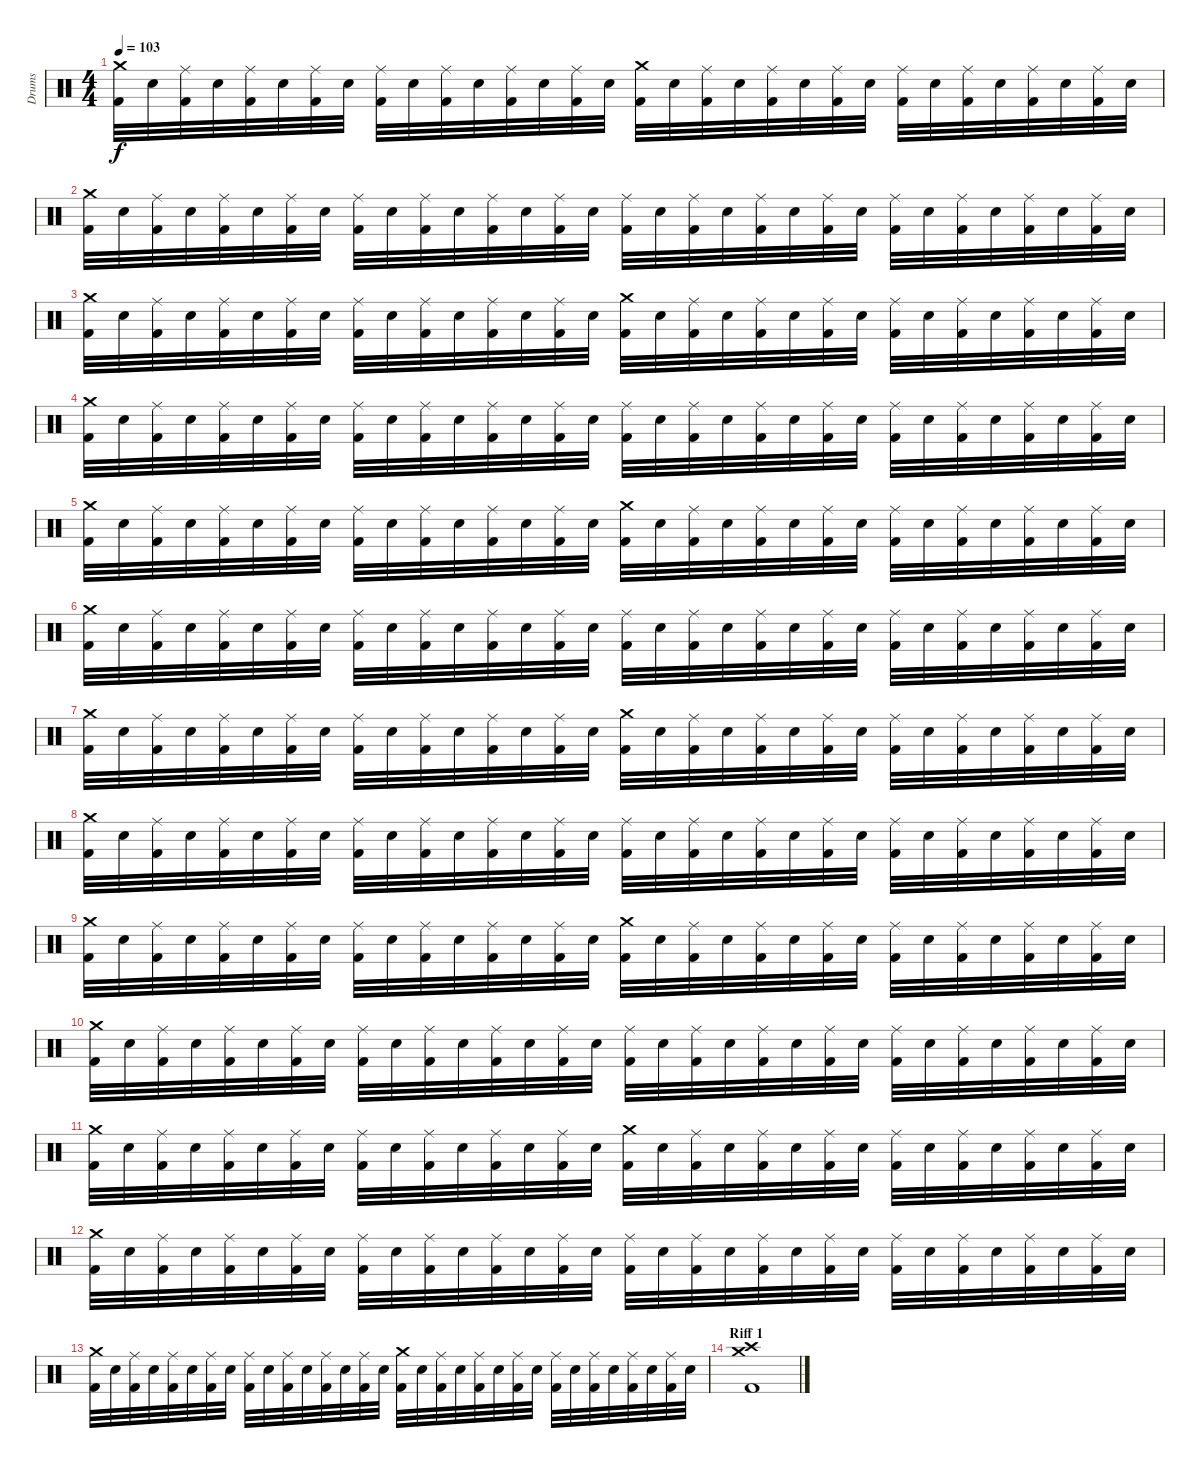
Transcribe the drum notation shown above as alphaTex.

\track ("Drums" "Drums") {instrument percussion}
\staff {score}
\articulation defaults
\ts (4 4)
\tempo 103
\clef neutral
\ks c
("Crash medium (hit)" "Kick (hit) 2").32{dy f} "Electric Snare (hit)".32 ("Ride (middle)" "Kick (hit) 2").32 "Electric Snare (hit)".32 ("Ride (middle)" "Kick (hit) 2").32 "Electric Snare (hit)".32 ("Ride (middle)" "Kick (hit) 2").32 "Electric Snare (hit)".32 ("Ride (middle)" "Kick (hit) 2").32 "Electric Snare (hit)".32 ("Ride (middle)" "Kick (hit) 2").32 "Electric Snare (hit)".32 ("Ride (middle)" "Kick (hit) 2").32 "Electric Snare (hit)".32 ("Ride (middle)" "Kick (hit) 2").32 "Electric Snare (hit)".32 ("Crash medium (hit)" "Kick (hit) 2").32 "Electric Snare (hit)".32 ("Ride (middle)" "Kick (hit) 2").32 "Electric Snare (hit)".32 ("Ride (middle)" "Kick (hit) 2").32 "Electric Snare (hit)".32 ("Ride (middle)" "Kick (hit) 2").32 "Electric Snare (hit)".32 ("Ride (middle)" "Kick (hit) 2").32 "Electric Snare (hit)".32 ("Ride (middle)" "Kick (hit) 2").32 "Electric Snare (hit)".32 ("Ride (middle)" "Kick (hit) 2").32 "Electric Snare (hit)".32 ("Ride (middle)" "Kick (hit) 2").32 "Electric Snare (hit)".32 |
("Crash medium (hit)" "Kick (hit) 2").32 "Electric Snare (hit)".32 ("Ride (middle)" "Kick (hit) 2").32 "Electric Snare (hit)".32 ("Ride (middle)" "Kick (hit) 2").32 "Electric Snare (hit)".32 ("Ride (middle)" "Kick (hit) 2").32 "Electric Snare (hit)".32 ("Ride (middle)" "Kick (hit) 2").32 "Electric Snare (hit)".32 ("Ride (middle)" "Kick (hit) 2").32 "Electric Snare (hit)".32 ("Ride (middle)" "Kick (hit) 2").32 "Electric Snare (hit)".32 ("Ride (middle)" "Kick (hit) 2").32 "Electric Snare (hit)".32 ("Ride (middle)" "Kick (hit) 2").32 "Electric Snare (hit)".32 ("Ride (middle)" "Kick (hit) 2").32 "Electric Snare (hit)".32 ("Ride (middle)" "Kick (hit) 2").32 "Electric Snare (hit)".32 ("Ride (middle)" "Kick (hit) 2").32 "Electric Snare (hit)".32 ("Ride (middle)" "Kick (hit) 2").32 "Electric Snare (hit)".32 ("Ride (middle)" "Kick (hit) 2").32 "Electric Snare (hit)".32 ("Ride (middle)" "Kick (hit) 2").32 "Electric Snare (hit)".32 ("Ride (middle)" "Kick (hit) 2").32 "Electric Snare (hit)".32 |
("Crash medium (hit)" "Kick (hit) 2").32 "Electric Snare (hit)".32 ("Ride (middle)" "Kick (hit) 2").32 "Electric Snare (hit)".32 ("Ride (middle)" "Kick (hit) 2").32 "Electric Snare (hit)".32 ("Ride (middle)" "Kick (hit) 2").32 "Electric Snare (hit)".32 ("Ride (middle)" "Kick (hit) 2").32 "Electric Snare (hit)".32 ("Ride (middle)" "Kick (hit) 2").32 "Electric Snare (hit)".32 ("Ride (middle)" "Kick (hit) 2").32 "Electric Snare (hit)".32 ("Ride (middle)" "Kick (hit) 2").32 "Electric Snare (hit)".32 ("Crash medium (hit)" "Kick (hit) 2").32 "Electric Snare (hit)".32 ("Ride (middle)" "Kick (hit) 2").32 "Electric Snare (hit)".32 ("Ride (middle)" "Kick (hit) 2").32 "Electric Snare (hit)".32 ("Ride (middle)" "Kick (hit) 2").32 "Electric Snare (hit)".32 ("Ride (middle)" "Kick (hit) 2").32 "Electric Snare (hit)".32 ("Ride (middle)" "Kick (hit) 2").32 "Electric Snare (hit)".32 ("Ride (middle)" "Kick (hit) 2").32 "Electric Snare (hit)".32 ("Ride (middle)" "Kick (hit) 2").32 "Electric Snare (hit)".32 |
("Crash medium (hit)" "Kick (hit) 2").32 "Electric Snare (hit)".32 ("Ride (middle)" "Kick (hit) 2").32 "Electric Snare (hit)".32 ("Ride (middle)" "Kick (hit) 2").32 "Electric Snare (hit)".32 ("Ride (middle)" "Kick (hit) 2").32 "Electric Snare (hit)".32 ("Ride (middle)" "Kick (hit) 2").32 "Electric Snare (hit)".32 ("Ride (middle)" "Kick (hit) 2").32 "Electric Snare (hit)".32 ("Ride (middle)" "Kick (hit) 2").32 "Electric Snare (hit)".32 ("Ride (middle)" "Kick (hit) 2").32 "Electric Snare (hit)".32 ("Ride (middle)" "Kick (hit) 2").32 "Electric Snare (hit)".32 ("Ride (middle)" "Kick (hit) 2").32 "Electric Snare (hit)".32 ("Ride (middle)" "Kick (hit) 2").32 "Electric Snare (hit)".32 ("Ride (middle)" "Kick (hit) 2").32 "Electric Snare (hit)".32 ("Ride (middle)" "Kick (hit) 2").32 "Electric Snare (hit)".32 ("Ride (middle)" "Kick (hit) 2").32 "Electric Snare (hit)".32 ("Ride (middle)" "Kick (hit) 2").32 "Electric Snare (hit)".32 ("Ride (middle)" "Kick (hit) 2").32 "Electric Snare (hit)".32 |
("Crash medium (hit)" "Kick (hit) 2").32 "Electric Snare (hit)".32 ("Ride (middle)" "Kick (hit) 2").32 "Electric Snare (hit)".32 ("Ride (middle)" "Kick (hit) 2").32 "Electric Snare (hit)".32 ("Ride (middle)" "Kick (hit) 2").32 "Electric Snare (hit)".32 ("Ride (middle)" "Kick (hit) 2").32 "Electric Snare (hit)".32 ("Ride (middle)" "Kick (hit) 2").32 "Electric Snare (hit)".32 ("Ride (middle)" "Kick (hit) 2").32 "Electric Snare (hit)".32 ("Ride (middle)" "Kick (hit) 2").32 "Electric Snare (hit)".32 ("Crash medium (hit)" "Kick (hit) 2").32 "Electric Snare (hit)".32 ("Ride (middle)" "Kick (hit) 2").32 "Electric Snare (hit)".32 ("Ride (middle)" "Kick (hit) 2").32 "Electric Snare (hit)".32 ("Ride (middle)" "Kick (hit) 2").32 "Electric Snare (hit)".32 ("Ride (middle)" "Kick (hit) 2").32 "Electric Snare (hit)".32 ("Ride (middle)" "Kick (hit) 2").32 "Electric Snare (hit)".32 ("Ride (middle)" "Kick (hit) 2").32 "Electric Snare (hit)".32 ("Ride (middle)" "Kick (hit) 2").32 "Electric Snare (hit)".32 |
("Crash medium (hit)" "Kick (hit) 2").32 "Electric Snare (hit)".32 ("Ride (middle)" "Kick (hit) 2").32 "Electric Snare (hit)".32 ("Ride (middle)" "Kick (hit) 2").32 "Electric Snare (hit)".32 ("Ride (middle)" "Kick (hit) 2").32 "Electric Snare (hit)".32 ("Ride (middle)" "Kick (hit) 2").32 "Electric Snare (hit)".32 ("Ride (middle)" "Kick (hit) 2").32 "Electric Snare (hit)".32 ("Ride (middle)" "Kick (hit) 2").32 "Electric Snare (hit)".32 ("Ride (middle)" "Kick (hit) 2").32 "Electric Snare (hit)".32 ("Ride (middle)" "Kick (hit) 2").32 "Electric Snare (hit)".32 ("Ride (middle)" "Kick (hit) 2").32 "Electric Snare (hit)".32 ("Ride (middle)" "Kick (hit) 2").32 "Electric Snare (hit)".32 ("Ride (middle)" "Kick (hit) 2").32 "Electric Snare (hit)".32 ("Ride (middle)" "Kick (hit) 2").32 "Electric Snare (hit)".32 ("Ride (middle)" "Kick (hit) 2").32 "Electric Snare (hit)".32 ("Ride (middle)" "Kick (hit) 2").32 "Electric Snare (hit)".32 ("Ride (middle)" "Kick (hit) 2").32 "Electric Snare (hit)".32 |
("Crash medium (hit)" "Kick (hit) 2").32 "Electric Snare (hit)".32 ("Ride (middle)" "Kick (hit) 2").32 "Electric Snare (hit)".32 ("Ride (middle)" "Kick (hit) 2").32 "Electric Snare (hit)".32 ("Ride (middle)" "Kick (hit) 2").32 "Electric Snare (hit)".32 ("Ride (middle)" "Kick (hit) 2").32 "Electric Snare (hit)".32 ("Ride (middle)" "Kick (hit) 2").32 "Electric Snare (hit)".32 ("Ride (middle)" "Kick (hit) 2").32 "Electric Snare (hit)".32 ("Ride (middle)" "Kick (hit) 2").32 "Electric Snare (hit)".32 ("Crash medium (hit)" "Kick (hit) 2").32 "Electric Snare (hit)".32 ("Ride (middle)" "Kick (hit) 2").32 "Electric Snare (hit)".32 ("Ride (middle)" "Kick (hit) 2").32 "Electric Snare (hit)".32 ("Ride (middle)" "Kick (hit) 2").32 "Electric Snare (hit)".32 ("Ride (middle)" "Kick (hit) 2").32 "Electric Snare (hit)".32 ("Ride (middle)" "Kick (hit) 2").32 "Electric Snare (hit)".32 ("Ride (middle)" "Kick (hit) 2").32 "Electric Snare (hit)".32 ("Ride (middle)" "Kick (hit) 2").32 "Electric Snare (hit)".32 |
("Crash medium (hit)" "Kick (hit) 2").32 "Electric Snare (hit)".32 ("Ride (middle)" "Kick (hit) 2").32 "Electric Snare (hit)".32 ("Ride (middle)" "Kick (hit) 2").32 "Electric Snare (hit)".32 ("Ride (middle)" "Kick (hit) 2").32 "Electric Snare (hit)".32 ("Ride (middle)" "Kick (hit) 2").32 "Electric Snare (hit)".32 ("Ride (middle)" "Kick (hit) 2").32 "Electric Snare (hit)".32 ("Ride (middle)" "Kick (hit) 2").32 "Electric Snare (hit)".32 ("Ride (middle)" "Kick (hit) 2").32 "Electric Snare (hit)".32 ("Ride (middle)" "Kick (hit) 2").32 "Electric Snare (hit)".32 ("Ride (middle)" "Kick (hit) 2").32 "Electric Snare (hit)".32 ("Ride (middle)" "Kick (hit) 2").32 "Electric Snare (hit)".32 ("Ride (middle)" "Kick (hit) 2").32 "Electric Snare (hit)".32 ("Ride (middle)" "Kick (hit) 2").32 "Electric Snare (hit)".32 ("Ride (middle)" "Kick (hit) 2").32 "Electric Snare (hit)".32 ("Ride (middle)" "Kick (hit) 2").32 "Electric Snare (hit)".32 ("Ride (middle)" "Kick (hit) 2").32 "Electric Snare (hit)".32 |
("Crash medium (hit)" "Kick (hit) 2").32 "Electric Snare (hit)".32 ("Ride (middle)" "Kick (hit) 2").32 "Electric Snare (hit)".32 ("Ride (middle)" "Kick (hit) 2").32 "Electric Snare (hit)".32 ("Ride (middle)" "Kick (hit) 2").32 "Electric Snare (hit)".32 ("Ride (middle)" "Kick (hit) 2").32 "Electric Snare (hit)".32 ("Ride (middle)" "Kick (hit) 2").32 "Electric Snare (hit)".32 ("Ride (middle)" "Kick (hit) 2").32 "Electric Snare (hit)".32 ("Ride (middle)" "Kick (hit) 2").32 "Electric Snare (hit)".32 ("Crash medium (hit)" "Kick (hit) 2").32 "Electric Snare (hit)".32 ("Ride (middle)" "Kick (hit) 2").32 "Electric Snare (hit)".32 ("Ride (middle)" "Kick (hit) 2").32 "Electric Snare (hit)".32 ("Ride (middle)" "Kick (hit) 2").32 "Electric Snare (hit)".32 ("Ride (middle)" "Kick (hit) 2").32 "Electric Snare (hit)".32 ("Ride (middle)" "Kick (hit) 2").32 "Electric Snare (hit)".32 ("Ride (middle)" "Kick (hit) 2").32 "Electric Snare (hit)".32 ("Ride (middle)" "Kick (hit) 2").32 "Electric Snare (hit)".32 |
("Crash medium (hit)" "Kick (hit) 2").32 "Electric Snare (hit)".32 ("Ride (middle)" "Kick (hit) 2").32 "Electric Snare (hit)".32 ("Ride (middle)" "Kick (hit) 2").32 "Electric Snare (hit)".32 ("Ride (middle)" "Kick (hit) 2").32 "Electric Snare (hit)".32 ("Ride (middle)" "Kick (hit) 2").32 "Electric Snare (hit)".32 ("Ride (middle)" "Kick (hit) 2").32 "Electric Snare (hit)".32 ("Ride (middle)" "Kick (hit) 2").32 "Electric Snare (hit)".32 ("Ride (middle)" "Kick (hit) 2").32 "Electric Snare (hit)".32 ("Ride (middle)" "Kick (hit) 2").32 "Electric Snare (hit)".32 ("Ride (middle)" "Kick (hit) 2").32 "Electric Snare (hit)".32 ("Ride (middle)" "Kick (hit) 2").32 "Electric Snare (hit)".32 ("Ride (middle)" "Kick (hit) 2").32 "Electric Snare (hit)".32 ("Ride (middle)" "Kick (hit) 2").32 "Electric Snare (hit)".32 ("Ride (middle)" "Kick (hit) 2").32 "Electric Snare (hit)".32 ("Ride (middle)" "Kick (hit) 2").32 "Electric Snare (hit)".32 ("Ride (middle)" "Kick (hit) 2").32 "Electric Snare (hit)".32 |
("Crash medium (hit)" "Kick (hit) 2").32 "Electric Snare (hit)".32 ("Ride (middle)" "Kick (hit) 2").32 "Electric Snare (hit)".32 ("Ride (middle)" "Kick (hit) 2").32 "Electric Snare (hit)".32 ("Ride (middle)" "Kick (hit) 2").32 "Electric Snare (hit)".32 ("Ride (middle)" "Kick (hit) 2").32 "Electric Snare (hit)".32 ("Ride (middle)" "Kick (hit) 2").32 "Electric Snare (hit)".32 ("Ride (middle)" "Kick (hit) 2").32 "Electric Snare (hit)".32 ("Ride (middle)" "Kick (hit) 2").32 "Electric Snare (hit)".32 ("Crash medium (hit)" "Kick (hit) 2").32 "Electric Snare (hit)".32 ("Ride (middle)" "Kick (hit) 2").32 "Electric Snare (hit)".32 ("Ride (middle)" "Kick (hit) 2").32 "Electric Snare (hit)".32 ("Ride (middle)" "Kick (hit) 2").32 "Electric Snare (hit)".32 ("Ride (middle)" "Kick (hit) 2").32 "Electric Snare (hit)".32 ("Ride (middle)" "Kick (hit) 2").32 "Electric Snare (hit)".32 ("Ride (middle)" "Kick (hit) 2").32 "Electric Snare (hit)".32 ("Ride (middle)" "Kick (hit) 2").32 "Electric Snare (hit)".32 |
("Crash medium (hit)" "Kick (hit) 2").32 "Electric Snare (hit)".32 ("Ride (middle)" "Kick (hit) 2").32 "Electric Snare (hit)".32 ("Ride (middle)" "Kick (hit) 2").32 "Electric Snare (hit)".32 ("Ride (middle)" "Kick (hit) 2").32 "Electric Snare (hit)".32 ("Ride (middle)" "Kick (hit) 2").32 "Electric Snare (hit)".32 ("Ride (middle)" "Kick (hit) 2").32 "Electric Snare (hit)".32 ("Ride (middle)" "Kick (hit) 2").32 "Electric Snare (hit)".32 ("Ride (middle)" "Kick (hit) 2").32 "Electric Snare (hit)".32 ("Ride (middle)" "Kick (hit) 2").32 "Electric Snare (hit)".32 ("Ride (middle)" "Kick (hit) 2").32 "Electric Snare (hit)".32 ("Ride (middle)" "Kick (hit) 2").32 "Electric Snare (hit)".32 ("Ride (middle)" "Kick (hit) 2").32 "Electric Snare (hit)".32 ("Ride (middle)" "Kick (hit) 2").32 "Electric Snare (hit)".32 ("Ride (middle)" "Kick (hit) 2").32 "Electric Snare (hit)".32 ("Ride (middle)" "Kick (hit) 2").32 "Electric Snare (hit)".32 ("Ride (middle)" "Kick (hit) 2").32 "Electric Snare (hit)".32 |
("Crash medium (hit)" "Kick (hit) 2").32 "Electric Snare (hit)".32 ("Ride (middle)" "Kick (hit) 2").32 "Electric Snare (hit)".32 ("Ride (middle)" "Kick (hit) 2").32 "Electric Snare (hit)".32 ("Ride (middle)" "Kick (hit) 2").32 "Electric Snare (hit)".32 ("Ride (middle)" "Kick (hit) 2").32 "Electric Snare (hit)".32 ("Ride (middle)" "Kick (hit) 2").32 "Electric Snare (hit)".32 ("Ride (middle)" "Kick (hit) 2").32 "Electric Snare (hit)".32 ("Ride (middle)" "Kick (hit) 2").32 "Electric Snare (hit)".32 ("Crash medium (hit)" "Kick (hit) 2").32 "Electric Snare (hit)".32 ("Ride (middle)" "Kick (hit) 2").32 "Electric Snare (hit)".32 ("Ride (middle)" "Kick (hit) 2").32 "Electric Snare (hit)".32 ("Ride (middle)" "Kick (hit) 2").32 "Electric Snare (hit)".32 ("Ride (middle)" "Kick (hit) 2").32 "Electric Snare (hit)".32 ("Ride (middle)" "Kick (hit) 2").32 "Electric Snare (hit)".32 ("Ride (middle)" "Kick (hit) 2").32 "Electric Snare (hit)".32 ("Ride (middle)" "Kick (hit) 2").32 "Electric Snare (hit)".32 |
\section ("" "Riff 1")
("Crash medium (hit)" "Crash high (hit)" "Kick (hit) 2").1
